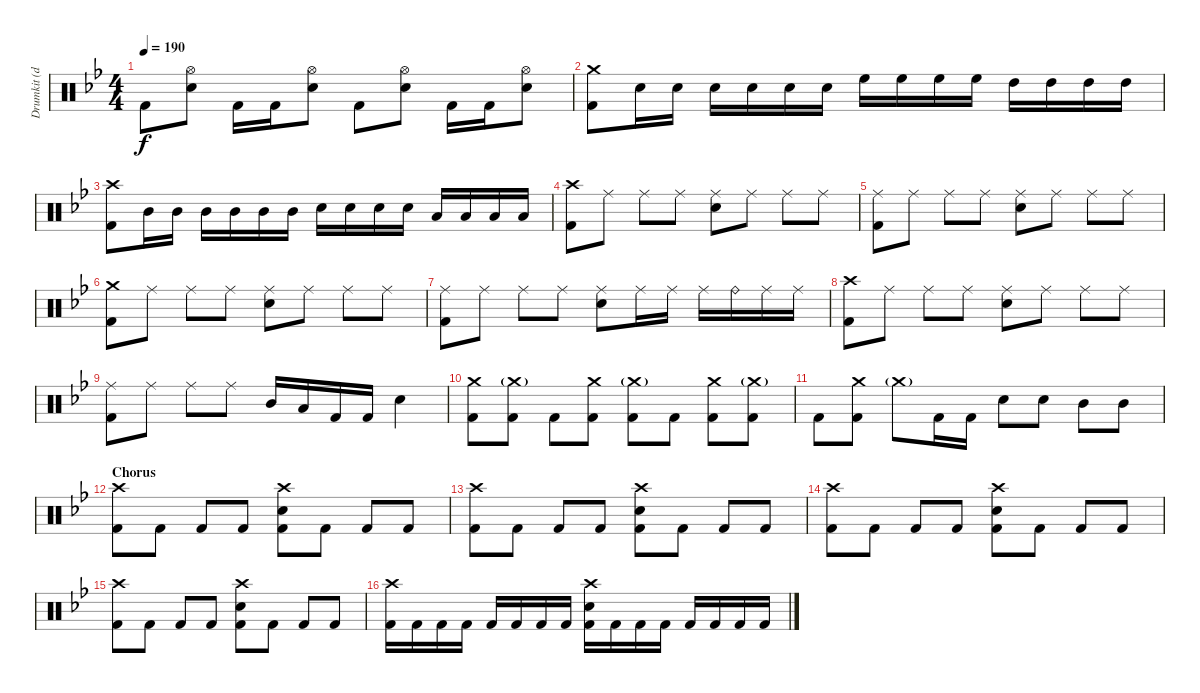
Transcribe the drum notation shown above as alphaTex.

\track ("Drumkit (don't unmute)" "Drumkit (d") {instrument percussion}
\staff {score}
\articulation defaults
\ts (4 4)
\tempo 190
\clef neutral
\ks bb "Kick (hit) 2".8{dy f}
("Snare (hit) 2" "Hi-Hat (open)").8 "Kick (hit) 2".16 "Kick (hit) 2".16 ("Snare (hit) 2" "Hi-Hat (open)").8 "Kick (hit) 2".8 ("Snare (hit) 2" "Hi-Hat (open)").8 "Kick (hit) 2".16 "Kick (hit) 2".16 ("Snare (hit) 2" "Hi-Hat (open)").8 |
("Kick (hit) 2" "Crash medium (hit)").8 "Snare (hit) 2".16 "Snare (hit) 2".16 "Snare (hit) 2".16 "Snare (hit) 2".16 "Snare (hit) 2".16 "Snare (hit) 2".16 "High Floor Tom (hit)".16 "High Floor Tom (hit)".16 "High Floor Tom (hit)".16 "High Floor Tom (hit)".16 "High Tom (hit)".16 "High Tom (hit)".16 "High Tom (hit)".16 "High Tom (hit)".16 |
("Kick (hit) 2" "Crash high (hit)").8 "Mid Tom (hit)".16 "Mid Tom (hit)".16 "Mid Tom (hit)".16 "Mid Tom (hit)".16 "Mid Tom (hit)".16 "Mid Tom (hit)".16 "Snare (hit) 2".16 "Snare (hit) 2".16 "Snare (hit) 2".16 "Snare (hit) 2".16 "Low Tom (hit)".16 "Low Tom (hit)".16 "Low Tom (hit)".16 "Low Tom (hit)".16 |
("Kick (hit) 2" "Crash high (hit)").8 "Ride (middle)".8 "Ride (middle)".8 "Ride (middle)".8 ("Snare (hit) 2" "Ride (middle)").8 "Ride (middle)".8 "Ride (middle)".8 "Ride (middle)".8 |
("Kick (hit) 2" "Ride (middle)").8 "Ride (middle)".8 "Ride (middle)".8 "Ride (middle)".8 ("Snare (hit) 2" "Ride (middle)").8 "Ride (middle)".8 "Ride (middle)".8 "Ride (middle)".8 |
("Kick (hit) 2" "Crash medium (hit)").8 "Ride (middle)".8 "Ride (middle)".8 "Ride (middle)".8 ("Snare (hit) 2" "Ride (middle)").8 "Ride (middle)".8 "Ride (middle)".8 "Ride (middle)".8 |
("Kick (hit) 2" "Ride (middle)").8 "Ride (middle)".8 "Ride (middle)".8 "Ride (middle)".8 ("Ride (middle)" "Snare (hit) 2").8 "Ride (middle)".16 "Ride (middle)".16 "Ride (middle)".16 "Ride (bell)".16 "Ride (middle)".16 "Ride (middle)".16 |
("Kick (hit) 2" "Crash high (hit)").8 "Ride (middle)".8 "Ride (middle)".8 "Ride (middle)".8 ("Snare (hit) 2" "Ride (middle)").8 "Ride (middle)".8 "Ride (middle)".8 "Ride (middle)".8 |
("Kick (hit) 2" "Ride (middle)").8 "Ride (middle)".8 "Ride (middle)".8 "Ride (middle)".8 "Mid Tom (hit)".16 "Low Tom (hit)".16 "Kick (hit) 2".16 "Kick (hit) 2".16 "Snare (hit) 2".4 |
("Kick (hit) 2" "Crash medium (hit)").8 ("Kick (hit) 2" "Crash medium (hit)"{g}).8 "Kick (hit) 2".8 ("Kick (hit) 2" "Crash medium (hit)").8 ("Kick (hit) 2" "Crash medium (hit)"{g}).8 "Kick (hit) 2".8 ("Kick (hit) 2" "Crash medium (hit)").8 ("Kick (hit) 2" "Crash medium (hit)"{g}).8 |
"Kick (hit) 2".8 ("Kick (hit) 2" "Crash medium (hit)").8 "Crash medium (hit)"{g}.8 "Kick (hit) 2".16 "Kick (hit) 2".16 "Snare (hit) 2".8 "Snare (hit) 2".8 "Mid Tom (hit)".8 "Mid Tom (hit)".8 |
\section ("" "Chorus")
("Kick (hit) 2" "Crash high (hit)").8 "Kick (hit) 2".8 "Kick (hit) 2".8 "Kick (hit) 2".8 ("Kick (hit) 2" "Crash high (hit)" "Snare (hit) 2").8 "Kick (hit) 2".8 "Kick (hit) 2".8 "Kick (hit) 2".8 |
("Kick (hit) 2" "Crash high (hit)").8 "Kick (hit) 2".8 "Kick (hit) 2".8 "Kick (hit) 2".8 ("Kick (hit) 2" "Crash high (hit)" "Snare (hit) 2").8 "Kick (hit) 2".8 "Kick (hit) 2".8 "Kick (hit) 2".8 |
("Kick (hit) 2" "Crash high (hit)").8 "Kick (hit) 2".8 "Kick (hit) 2".8 "Kick (hit) 2".8 ("Kick (hit) 2" "Crash high (hit)" "Snare (hit) 2").8 "Kick (hit) 2".8 "Kick (hit) 2".8 "Kick (hit) 2".8 |
("Kick (hit) 2" "Crash high (hit)").8 "Kick (hit) 2".8 "Kick (hit) 2".8 "Kick (hit) 2".8 ("Kick (hit) 2" "Crash high (hit)" "Snare (hit) 2").8 "Kick (hit) 2".8 "Kick (hit) 2".8 "Kick (hit) 2".8 |
("Kick (hit) 2" "Crash high (hit)").16 "Kick (hit) 2".16 "Kick (hit) 2".16 "Kick (hit) 2".16 "Kick (hit) 2".16 "Kick (hit) 2".16 "Kick (hit) 2".16 "Kick (hit) 2".16 ("Kick (hit) 2" "Crash high (hit)" "Snare (hit) 2").16 "Kick (hit) 2".16 "Kick (hit) 2".16 "Kick (hit) 2".16 "Kick (hit) 2".16 "Kick (hit) 2".16 "Kick (hit) 2".16 "Kick (hit) 2".16
